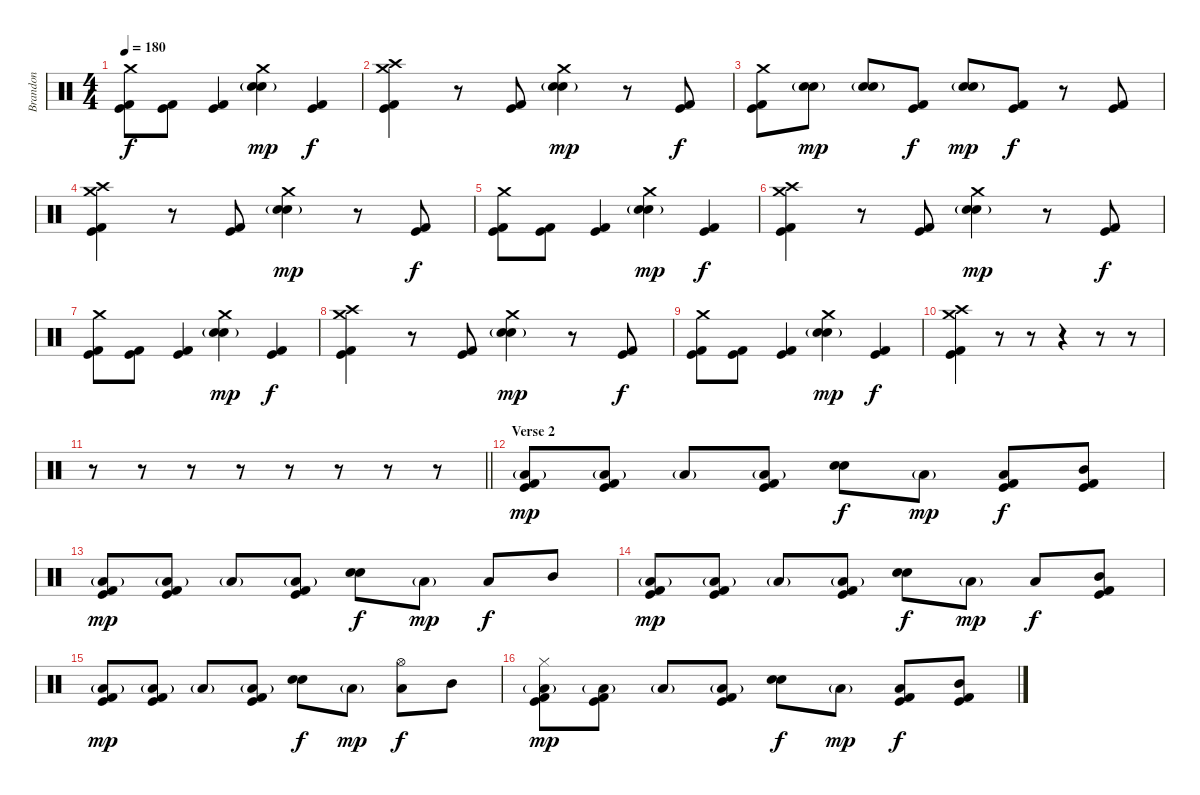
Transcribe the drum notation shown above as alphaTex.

\track ("Brandon" "Brandon") {instrument percussion}
\staff {score}
\articulation defaults
\ts (4 4)
\tempo 180
\clef neutral
\ks c
("Crash medium (hit)" "Kick (hit) 2" "Kick (hit)").8{dy f} ("Kick (hit)" "Kick (hit) 2").8 ("Kick (hit)" "Kick (hit) 2").4 ("Crash medium (hit)" "Snare (hit) 2" "Electric Snare (hit)"{g}).4{dy mp} ("Kick (hit)" "Kick (hit) 2").4{dy f} |
("Crash high (hit)" "Crash medium (hit)" "Kick (hit)" "Kick (hit) 2").4 r.8 ("Kick (hit)" "Kick (hit) 2").8 ("Crash medium (hit)" "Snare (hit) 2" "Electric Snare (hit)"{g}).4{dy mp} r.8 ("Kick (hit)" "Kick (hit) 2").8{dy f} |
("Crash medium (hit)" "Kick (hit) 2" "Kick (hit)").8 ("Snare (hit) 2" "Electric Snare (hit)"{g}).8{dy mp} ("Snare (hit) 2" "Electric Snare (hit)"{g}).8 ("Kick (hit)" "Kick (hit) 2").8{dy f} ("Snare (hit) 2" "Electric Snare (hit)"{g}).8{dy mp} ("Kick (hit)" "Kick (hit) 2").8{dy f} r.8 ("Kick (hit)" "Kick (hit) 2").8 |
("Crash high (hit)" "Crash medium (hit)" "Kick (hit)" "Kick (hit) 2").4 r.8 ("Kick (hit)" "Kick (hit) 2").8 ("Crash medium (hit)" "Snare (hit) 2" "Electric Snare (hit)"{g}).4{dy mp} r.8 ("Kick (hit)" "Kick (hit) 2").8{dy f} |
("Crash medium (hit)" "Kick (hit) 2" "Kick (hit)").8 ("Kick (hit)" "Kick (hit) 2").8 ("Kick (hit)" "Kick (hit) 2").4 ("Crash medium (hit)" "Snare (hit) 2" "Electric Snare (hit)"{g}).4{dy mp} ("Kick (hit)" "Kick (hit) 2").4{dy f} |
("Crash high (hit)" "Crash medium (hit)" "Kick (hit)" "Kick (hit) 2").4 r.8 ("Kick (hit)" "Kick (hit) 2").8 ("Crash medium (hit)" "Snare (hit) 2" "Electric Snare (hit)"{g}).4{dy mp} r.8 ("Kick (hit)" "Kick (hit) 2").8{dy f} |
("Crash medium (hit)" "Kick (hit) 2" "Kick (hit)").8 ("Kick (hit)" "Kick (hit) 2").8 ("Kick (hit)" "Kick (hit) 2").4 ("Crash medium (hit)" "Snare (hit) 2" "Electric Snare (hit)"{g}).4{dy mp} ("Kick (hit)" "Kick (hit) 2").4{dy f} |
("Crash high (hit)" "Crash medium (hit)" "Kick (hit)" "Kick (hit) 2").4 r.8 ("Kick (hit)" "Kick (hit) 2").8 ("Crash medium (hit)" "Snare (hit) 2" "Electric Snare (hit)"{g}).4{dy mp} r.8 ("Kick (hit)" "Kick (hit) 2").8{dy f} |
("Crash medium (hit)" "Kick (hit) 2" "Kick (hit)").8 ("Kick (hit)" "Kick (hit) 2").8 ("Kick (hit)" "Kick (hit) 2").4 ("Crash medium (hit)" "Snare (hit) 2" "Electric Snare (hit)"{g}).4{dy mp} ("Kick (hit)" "Kick (hit) 2").4{dy f} |
("Crash high (hit)" "Crash medium (hit)" "Kick (hit)" "Kick (hit) 2").4 r.8 r.8 r.4 r.8 r.8 |
\barLineRight lightlight
r.8 r.8 r.8 r.8 r.8 r.8 r.8 r.8 |
\section ("" "Verse 2")
("Low Floor Tom (hit)"{g} "Kick (hit)" "Kick (hit) 2").8{dy mp} ("Low Floor Tom (hit)"{g} "Kick (hit)" "Kick (hit) 2").8 "Low Floor Tom (hit)"{g}.8 ("Low Floor Tom (hit)"{g} "Kick (hit)" "Kick (hit) 2").8 ("Electric Snare (hit)" "Snare (hit) 2").8{dy f} "Low Floor Tom (hit)"{g}.8{dy mp} ("Low Tom (hit)" "Kick (hit)" "Kick (hit) 2").8{dy f} ("Mid Tom (hit)" "Kick (hit)" "Kick (hit) 2").8 |
("Low Floor Tom (hit)"{g} "Kick (hit)" "Kick (hit) 2").8{dy mp} ("Low Floor Tom (hit)"{g} "Kick (hit)" "Kick (hit) 2").8 "Low Floor Tom (hit)"{g}.8 ("Low Floor Tom (hit)"{g} "Kick (hit)" "Kick (hit) 2").8 ("Electric Snare (hit)" "Snare (hit) 2").8{dy f} "Low Floor Tom (hit)"{g}.8{dy mp} "Low Tom (hit)".8{dy f} "Mid Tom (hit)".8 |
("Low Floor Tom (hit)"{g} "Kick (hit)" "Kick (hit) 2").8{dy mp} ("Low Floor Tom (hit)"{g} "Kick (hit)" "Kick (hit) 2").8 "Low Floor Tom (hit)"{g}.8 ("Low Floor Tom (hit)"{g} "Kick (hit)" "Kick (hit) 2").8 ("Electric Snare (hit)" "Snare (hit) 2").8{dy f} "Low Floor Tom (hit)"{g}.8{dy mp} "Low Tom (hit)".8{dy f} ("Mid Tom (hit)" "Kick (hit)" "Kick (hit) 2").8 |
("Low Floor Tom (hit)"{g} "Kick (hit)" "Kick (hit) 2").8{dy mp} ("Low Floor Tom (hit)"{g} "Kick (hit)" "Kick (hit) 2").8 "Low Floor Tom (hit)"{g}.8 ("Low Floor Tom (hit)"{g} "Kick (hit)" "Kick (hit) 2").8 ("Electric Snare (hit)" "Snare (hit) 2").8{dy f} "Low Floor Tom (hit)"{g}.8{dy mp} ("Hi-Hat (open)" "Low Tom (hit)").8{dy f} "Mid Tom (hit)".8 |
("Hi-Hat (closed)" "Low Floor Tom (hit)"{g} "Kick (hit)" "Kick (hit) 2").8{dy mp} ("Low Floor Tom (hit)"{g} "Kick (hit)" "Kick (hit) 2").8 "Low Floor Tom (hit)"{g}.8 ("Low Floor Tom (hit)"{g} "Kick (hit)" "Kick (hit) 2").8 ("Electric Snare (hit)" "Snare (hit) 2").8{dy f} "Low Floor Tom (hit)"{g}.8{dy mp} ("Low Tom (hit)" "Kick (hit)" "Kick (hit) 2").8{dy f} ("Mid Tom (hit)" "Kick (hit)" "Kick (hit) 2").8
